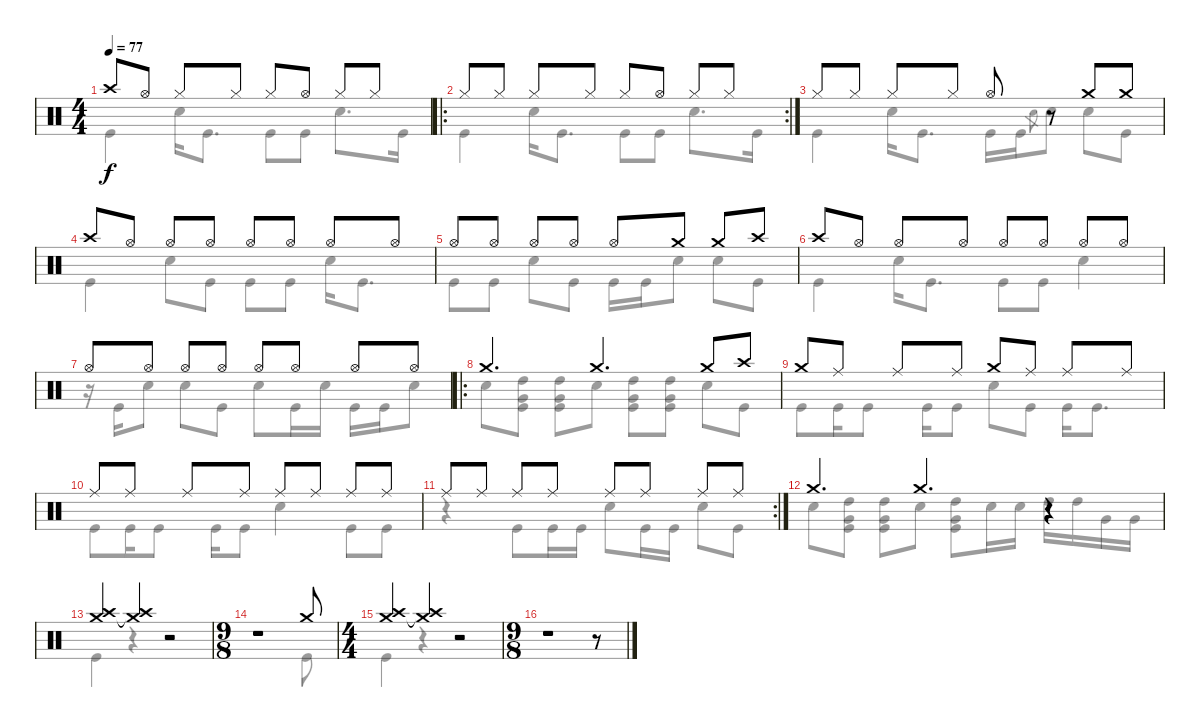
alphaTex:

\track "" {instrument percussion}
\staff {score}
\articulation defaults
\voice
\ts (4 4)
\tempo 77
\clef neutral
\ks c "Crash high (hit)".8{dy f} "Hi-Hat (open)".8 "Hi-Hat (closed)".8 "Hi-Hat (closed)".8 "Hi-Hat (closed)".8 "Hi-Hat (open)".8 "Hi-Hat (closed)".8 "Hi-Hat (closed)".8
|
\ro
\rc 2 "Hi-Hat (closed)".8 "Hi-Hat (closed)".8 "Hi-Hat (closed)".8 "Hi-Hat (closed)".8 "Hi-Hat (closed)".8 "Hi-Hat (open)".8 "Hi-Hat (closed)".8 "Hi-Hat (closed)".8
|
"Hi-Hat (closed)".8 "Hi-Hat (closed)".8 "Hi-Hat (closed)".8 "Hi-Hat (closed)".8 "Hi-Hat (open)".8 r.8 "Crash medium (hit)".8 "Crash medium (hit)".8 |
"Crash high (hit)".8 "Hi-Hat (open)".8 "Hi-Hat (open)".8 "Hi-Hat (open)".8 "Hi-Hat (open)".8 "Hi-Hat (open)".8 "Hi-Hat (open)".8 "Hi-Hat (open)".8 |
"Hi-Hat (open)".8 "Hi-Hat (open)".8 "Hi-Hat (open)".8 "Hi-Hat (open)".8 "Hi-Hat (open)".8 "Crash medium (hit)".8 "Crash medium (hit)".8 "Crash high (hit)".8 |
"Crash high (hit)".8 "Hi-Hat (open)".8 "Hi-Hat (open)".8 "Hi-Hat (open)".8 "Hi-Hat (open)".8 "Hi-Hat (open)".8 "Hi-Hat (open)".8 "Hi-Hat (open)".8 |
"Hi-Hat (open)".8 "Hi-Hat (open)".8 "Hi-Hat (open)".8 "Hi-Hat (open)".8 "Hi-Hat (open)".8 "Hi-Hat (open)".8 "Hi-Hat (open)".8 "Hi-Hat (open)".8 |
\ro "Crash medium (hit)".4{d} "Crash medium (hit)".4{d} "Crash medium (hit)".8 "Crash high (hit)".8
|
"Crash medium (hit)".8 "Ride (middle)".8 "Ride (middle)".8 "Ride (middle)".8 "Crash medium (hit)".8 "Ride (middle)".8 "Ride (middle)".8 "Ride (middle)".8 |
"Ride (middle)".8 "Ride (middle)".8 "Ride (middle)".8 "Ride (middle)".8 "Ride (middle)".8 "Ride (middle)".8 "Ride (middle)".8 "Ride (middle)".8 |
\rc 2 "Ride (middle)".8 "Ride (middle)".8 "Ride (middle)".8 "Ride (middle)".8 "Ride (middle)".8 "Ride (middle)".8 "Ride (middle)".8 "Ride (middle)".8
|
"Crash medium (hit)".4{d} "Crash medium (hit)".4{d} r.4 |
("Crash high (hit)" "Crash medium (hit)").4 ("Crash high (hit)"{t} "Crash medium (hit)").4 r.2 |
\ts (9 8)
r.1 "Crash medium (hit)".8 |
\ts (4 4)
("Crash high (hit)" "Crash medium (hit)").4 ("Crash high (hit)"{t} "Crash medium (hit)").4 r.2 |
\ts (9 8)
r.1 r.8
\voice
\clef neutral
\ottava regular
\simile none
\ks c "Kick (hit)".4{dy f} "Snare (hit) 2".16 "Kick (hit)".8{d} "Kick (hit)".8 "Kick (hit)".8 "Snare (hit) 2".8{d} "Kick (hit)".16
|
"Kick (hit)".4 "Snare (hit) 2".16 "Kick (hit)".8{d} "Kick (hit)".8 "Kick (hit)".8 "Snare (hit) 2".8{d} "Kick (hit)".16 |
"Kick (hit)".4 "Snare (hit) 2".16 "Kick (hit)".8{d} "Kick (hit)".16 "Kick (hit)".16 "Snare (hit) 2".8{gr} "Snare (hit) 2".8 "Snare (hit) 2".8 "Kick (hit)".8 |
"Kick (hit)".4 "Snare (hit) 2".8 "Kick (hit)".8 "Kick (hit)".8 "Kick (hit)".8 "Snare (hit) 2".16 "Kick (hit)".8{d} |
"Kick (hit)".8 "Kick (hit)".8 "Snare (hit) 2".8 "Kick (hit)".8 "Kick (hit)".16 "Kick (hit)".16 "Snare (hit) 2".8 "Snare (hit) 2".8 "Kick (hit)".8 |
"Kick (hit)".4 "Snare (hit) 2".16 "Kick (hit)".8{d} "Kick (hit)".8 "Kick (hit)".8 "Snare (hit) 2".4 |
r.16 "Kick (hit)".16 "Snare (hit) 2".8 "Snare (hit) 2".8 "Kick (hit)".8 "Snare (hit) 2".8 "Kick (hit)".16 "Snare (hit) 2".16 "Kick (hit)".16 "Kick (hit)".16 "Snare (hit) 2".8 |
"Snare (hit) 2".8 ("High Tom (hit)" "Very Low Tom (hit)" "Kick (hit)").8 ("High Tom (hit)" "Very Low Tom (hit)" "Kick (hit)").8 "Snare (hit) 2".8 ("High Tom (hit)" "Very Low Tom (hit)" "Kick (hit)").8 ("High Tom (hit)" "Very Low Tom (hit)" "Kick (hit)").8 "Snare (hit) 2".8 "Kick (hit)".8 |
"Kick (hit)".8 "Kick (hit)".16 "Kick (hit)".8 "Kick (hit)".16 "Kick (hit)".8 "Snare (hit) 2".8 "Kick (hit)".8 "Kick (hit)".16 "Kick (hit)".8{d} |
"Kick (hit)".8 "Kick (hit)".16 "Kick (hit)".8 "Kick (hit)".16 "Kick (hit)".8 "Snare (hit) 2".4 "Kick (hit)".8 "Kick (hit)".8 |
r.4 "Kick (hit)".8 "Kick (hit)".16 "Kick (hit)".16 "Snare (hit) 2".8 "Kick (hit)".16 "Kick (hit)".16 "Snare (hit) 2".8 "Kick (hit)".8 |
"Snare (hit) 2".8 ("High Tom (hit)" "Very Low Tom (hit)" "Kick (hit)").8 ("High Tom (hit)" "Very Low Tom (hit)" "Kick (hit)").8 "Snare (hit) 2".8 ("High Tom (hit)" "Very Low Tom (hit)" "Kick (hit)").8 "Snare (hit) 2".16 "Snare (hit) 2".16 "High Tom (hit)".16 "High Tom (hit)".16 "Very Low Tom (hit)".16 "Very Low Tom (hit)".16 |
"Kick (hit)".4 r.4 r.2 |
r.1 "Kick (hit)".8 |
"Kick (hit)".4 r.4 r.2 |
r.1 r.8
